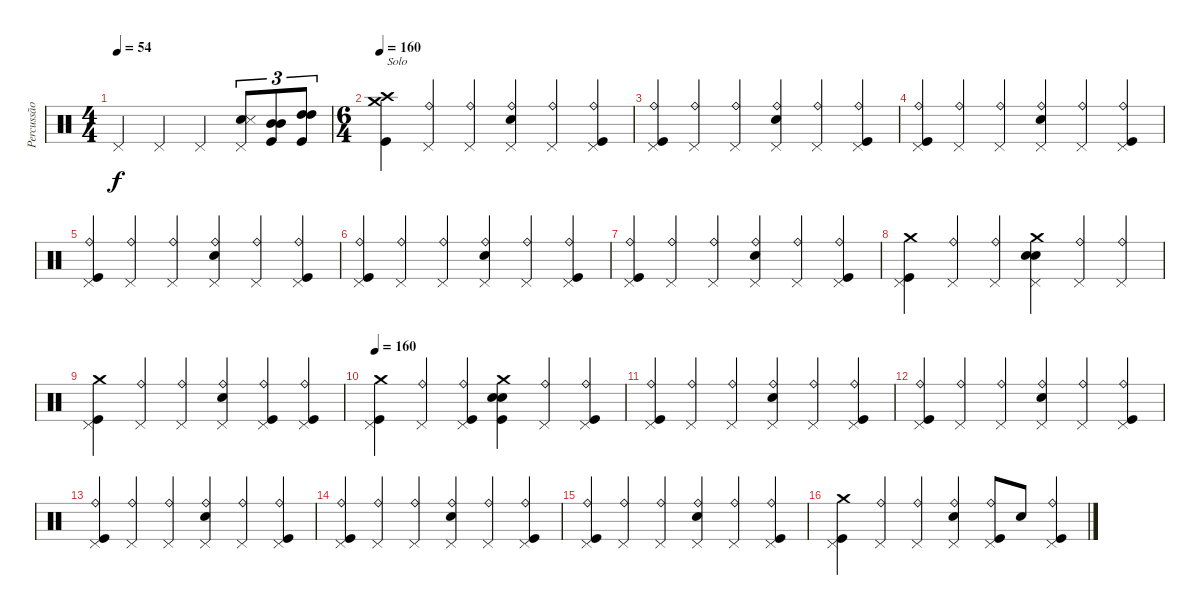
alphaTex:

\track ("Percussão" "Percussão") {instrument percussion}
\staff {score}
\articulation defaults
\ts (4 4)
\tempo 54
\clef neutral
\ks c "Pedal Hi-Hat (hit)".4{dy f} "Pedal Hi-Hat (hit)".4 "Pedal Hi-Hat (hit)".4
("Pedal Hi-Hat (hit)" "Snare (hit) 2" "Snare (side stick) 3").8{tu (3 2) balance 11} ("Mid Tom (hit)" "Mid Tom (hit)" "Kick (hit)").8{tu (3 2) balance 6} ("High Tom (hit)" "High Tom (hit)" "Kick (hit)").8{tu (3 2) balance 9} |
\ts (6 4)
\tempo 160
("Crash high (hit)" "Crash medium (hit)" "Kick (hit)").4{txt "Solo"} ("Ride (bell)" "Pedal Hi-Hat (hit)").4 ("Ride (bell)" "Pedal Hi-Hat (hit)").4 ("Ride (bell)" "Pedal Hi-Hat (hit)" "Snare (hit) 2").4 ("Ride (bell)" "Pedal Hi-Hat (hit)").4 ("Ride (bell)" "Pedal Hi-Hat (hit)" "Kick (hit)").4 |
("Ride (bell)" "Pedal Hi-Hat (hit)" "Kick (hit)").4 ("Ride (bell)" "Pedal Hi-Hat (hit)").4 ("Ride (bell)" "Pedal Hi-Hat (hit)").4 ("Ride (bell)" "Pedal Hi-Hat (hit)" "Snare (hit) 2").4 ("Ride (bell)" "Pedal Hi-Hat (hit)").4 ("Ride (bell)" "Pedal Hi-Hat (hit)" "Kick (hit)").4 |
("Ride (bell)" "Pedal Hi-Hat (hit)" "Kick (hit)").4 ("Ride (bell)" "Pedal Hi-Hat (hit)").4 ("Ride (bell)" "Pedal Hi-Hat (hit)").4 ("Ride (bell)" "Pedal Hi-Hat (hit)" "Snare (hit) 2").4 ("Ride (bell)" "Pedal Hi-Hat (hit)").4 ("Ride (bell)" "Pedal Hi-Hat (hit)" "Kick (hit)").4 |
("Ride (bell)" "Pedal Hi-Hat (hit)" "Kick (hit)").4 ("Ride (bell)" "Pedal Hi-Hat (hit)").4 ("Ride (bell)" "Pedal Hi-Hat (hit)").4 ("Ride (bell)" "Pedal Hi-Hat (hit)" "Snare (hit) 2").4 ("Ride (bell)" "Pedal Hi-Hat (hit)").4 ("Ride (bell)" "Pedal Hi-Hat (hit)" "Kick (hit)").4 |
("Ride (bell)" "Pedal Hi-Hat (hit)" "Kick (hit)").4 ("Ride (bell)" "Pedal Hi-Hat (hit)").4 ("Ride (bell)" "Pedal Hi-Hat (hit)").4 ("Ride (bell)" "Pedal Hi-Hat (hit)" "Snare (hit) 2").4 ("Ride (bell)" "Pedal Hi-Hat (hit)").4 ("Ride (bell)" "Pedal Hi-Hat (hit)" "Kick (hit)").4 |
("Ride (bell)" "Pedal Hi-Hat (hit)" "Kick (hit)").4 ("Ride (bell)" "Pedal Hi-Hat (hit)").4 ("Ride (bell)" "Pedal Hi-Hat (hit)").4 ("Ride (bell)" "Pedal Hi-Hat (hit)" "Snare (hit) 2").4 ("Ride (bell)" "Pedal Hi-Hat (hit)").4 ("Ride (bell)" "Pedal Hi-Hat (hit)" "Kick (hit)").4 |
("Crash medium (hit)" "Pedal Hi-Hat (hit)" "Kick (hit)").4 ("Ride (bell)" "Pedal Hi-Hat (hit)").4 ("Ride (bell)" "Pedal Hi-Hat (hit)").4 ("Crash medium (hit)" "Pedal Hi-Hat (hit)" "Snare (hit) 2" "Snare (hit) 2").4 ("Ride (bell)" "Pedal Hi-Hat (hit)").4 ("Ride (bell)" "Pedal Hi-Hat (hit)").4 |
("Crash medium (hit)" "Pedal Hi-Hat (hit)" "Kick (hit)").4 ("Ride (bell)" "Pedal Hi-Hat (hit)").4 ("Ride (bell)" "Pedal Hi-Hat (hit)").4 ("Ride (bell)" "Pedal Hi-Hat (hit)" "Snare (hit) 2").4 ("Ride (bell)" "Pedal Hi-Hat (hit)" "Kick (hit)").4 ("Ride (bell)" "Pedal Hi-Hat (hit)" "Kick (hit)").4 |
\tempo 160
("Crash medium (hit)" "Pedal Hi-Hat (hit)" "Kick (hit)").4 ("Ride (bell)" "Pedal Hi-Hat (hit)").4 ("Ride (bell)" "Pedal Hi-Hat (hit)" "Kick (hit)").4 ("Crash medium (hit)" "Snare (hit) 2" "Snare (hit) 2" "Kick (hit)").4 ("Ride (bell)" "Pedal Hi-Hat (hit)").4 ("Ride (bell)" "Pedal Hi-Hat (hit)" "Kick (hit)").4 |
("Ride (bell)" "Pedal Hi-Hat (hit)" "Kick (hit)").4 ("Ride (bell)" "Pedal Hi-Hat (hit)").4 ("Ride (bell)" "Pedal Hi-Hat (hit)").4 ("Ride (bell)" "Pedal Hi-Hat (hit)" "Snare (hit) 2").4 ("Ride (bell)" "Pedal Hi-Hat (hit)").4 ("Ride (bell)" "Pedal Hi-Hat (hit)" "Kick (hit)").4 |
("Ride (bell)" "Pedal Hi-Hat (hit)" "Kick (hit)").4 ("Ride (bell)" "Pedal Hi-Hat (hit)").4 ("Ride (bell)" "Pedal Hi-Hat (hit)").4 ("Ride (bell)" "Pedal Hi-Hat (hit)" "Snare (hit) 2").4 ("Ride (bell)" "Pedal Hi-Hat (hit)").4 ("Ride (bell)" "Pedal Hi-Hat (hit)" "Kick (hit)").4 |
("Ride (bell)" "Pedal Hi-Hat (hit)" "Kick (hit)").4 ("Ride (bell)" "Pedal Hi-Hat (hit)").4 ("Ride (bell)" "Pedal Hi-Hat (hit)").4 ("Ride (bell)" "Pedal Hi-Hat (hit)" "Snare (hit) 2").4 ("Ride (bell)" "Pedal Hi-Hat (hit)").4 ("Ride (bell)" "Pedal Hi-Hat (hit)" "Kick (hit)").4 |
("Ride (bell)" "Pedal Hi-Hat (hit)" "Kick (hit)").4 ("Ride (bell)" "Pedal Hi-Hat (hit)").4 ("Ride (bell)" "Pedal Hi-Hat (hit)").4 ("Ride (bell)" "Pedal Hi-Hat (hit)" "Snare (hit) 2").4 ("Ride (bell)" "Pedal Hi-Hat (hit)").4 ("Ride (bell)" "Pedal Hi-Hat (hit)" "Kick (hit)").4 |
("Ride (bell)" "Pedal Hi-Hat (hit)" "Kick (hit)").4 ("Ride (bell)" "Pedal Hi-Hat (hit)").4 ("Ride (bell)" "Pedal Hi-Hat (hit)").4 ("Ride (bell)" "Pedal Hi-Hat (hit)" "Snare (hit) 2").4 ("Ride (bell)" "Pedal Hi-Hat (hit)").4 ("Ride (bell)" "Pedal Hi-Hat (hit)" "Kick (hit)").4 |
("Crash medium (hit)" "Pedal Hi-Hat (hit)" "Kick (hit)").4 ("Ride (bell)" "Pedal Hi-Hat (hit)").4 ("Ride (bell)" "Pedal Hi-Hat (hit)").4 ("Ride (bell)" "Pedal Hi-Hat (hit)" "Snare (hit) 2").4 ("Ride (bell)" "Pedal Hi-Hat (hit)" "Kick (hit)").8{balance 12} "Snare (hit) 2".8{balance 4} ("Ride (bell)" "Pedal Hi-Hat (hit)" "Kick (hit)").4{balance 12}
